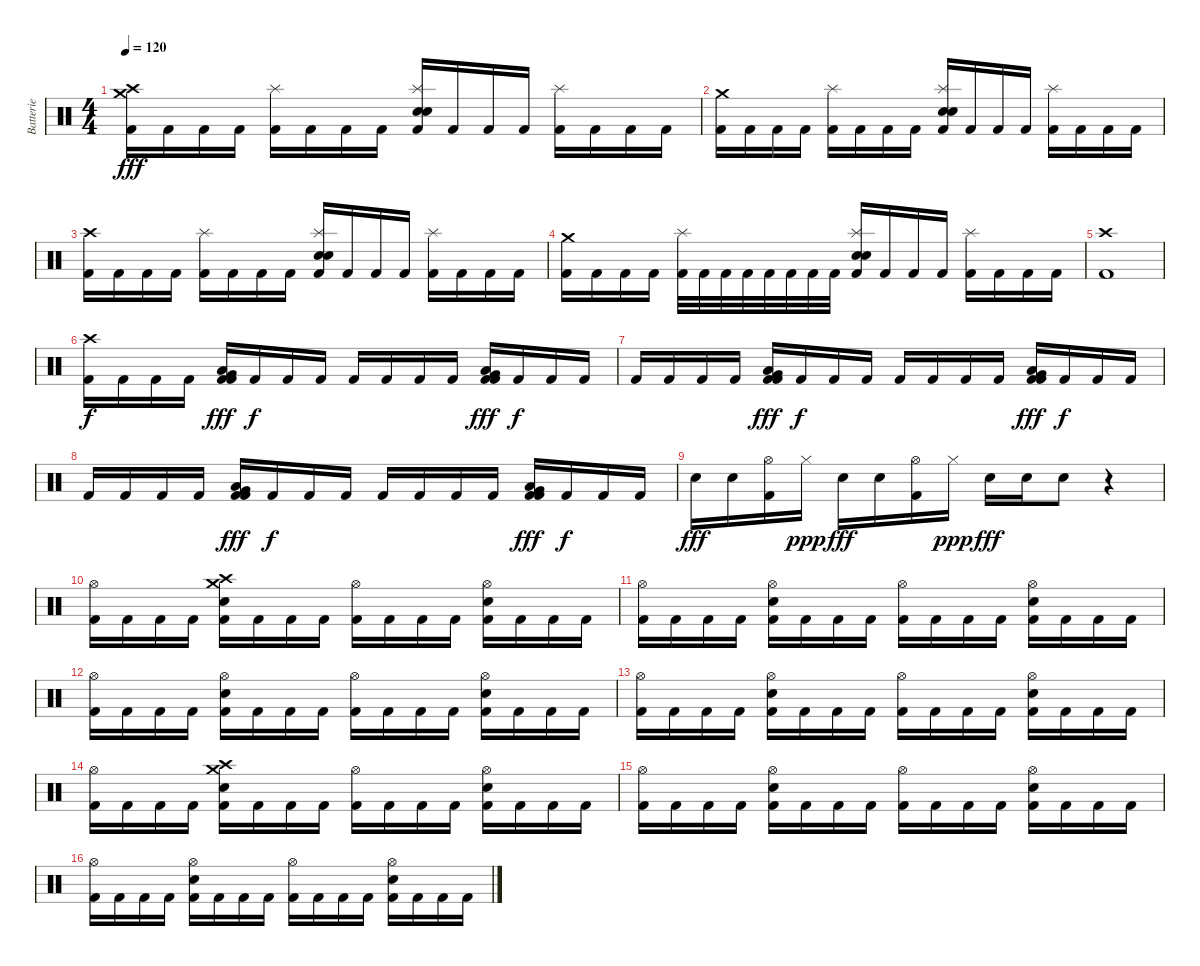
\track ("Batterie" "Batterie") {instrument percussion}
\staff {score}
\articulation defaults
\ts (4 4)
\tempo 120
\clef neutral
\ks c
("Crash high (hit)" "Crash medium (hit)" "Kick (hit) 2").16{dy fff} "Kick (hit) 2".16 "Kick (hit) 2".16 "Kick (hit) 2".16 ("Splash (hit)" "Kick (hit) 2").16 "Kick (hit) 2".16 "Kick (hit) 2".16 "Kick (hit) 2".16 ("Splash (hit)" "Electric Snare (hit)" "Kick (hit) 2" "Electric Snare (hit)").16 "Kick (hit) 2".16 "Kick (hit) 2".16 "Kick (hit) 2".16 ("Splash (hit)" "Kick (hit) 2").16 "Kick (hit) 2".16 "Kick (hit) 2".16 "Kick (hit) 2".16 |
("Crash medium (hit)" "Kick (hit) 2").16 "Kick (hit) 2".16 "Kick (hit) 2".16 "Kick (hit) 2".16 ("Splash (hit)" "Kick (hit) 2").16 "Kick (hit) 2".16 "Kick (hit) 2".16 "Kick (hit) 2".16 ("Splash (hit)" "Electric Snare (hit)" "Kick (hit) 2" "Electric Snare (hit)").16 "Kick (hit) 2".16 "Kick (hit) 2".16 "Kick (hit) 2".16 ("Splash (hit)" "Kick (hit) 2").16 "Kick (hit) 2".16 "Kick (hit) 2".16 "Kick (hit) 2".16 |
("Crash high (hit)" "Kick (hit) 2").16 "Kick (hit) 2".16 "Kick (hit) 2".16 "Kick (hit) 2".16 ("Splash (hit)" "Kick (hit) 2").16 "Kick (hit) 2".16 "Kick (hit) 2".16 "Kick (hit) 2".16 ("Splash (hit)" "Electric Snare (hit)" "Kick (hit) 2" "Electric Snare (hit)").16 "Kick (hit) 2".16 "Kick (hit) 2".16 "Kick (hit) 2".16 ("Splash (hit)" "Kick (hit) 2").16 "Kick (hit) 2".16 "Kick (hit) 2".16 "Kick (hit) 2".16 |
("Crash medium (hit)" "Kick (hit) 2").16 "Kick (hit) 2".16 "Kick (hit) 2".16 "Kick (hit) 2".16 ("Splash (hit)" "Kick (hit) 2").32 "Kick (hit) 2".32 "Kick (hit) 2".32 "Kick (hit) 2".32 "Kick (hit) 2".32 "Kick (hit) 2".32 "Kick (hit) 2".32 "Kick (hit) 2".32 ("Splash (hit)" "Electric Snare (hit)" "Kick (hit) 2" "Electric Snare (hit)").16 "Kick (hit) 2".16 "Kick (hit) 2".16 "Kick (hit) 2".16 ("Splash (hit)" "Kick (hit) 2").16 "Kick (hit) 2".16 "Kick (hit) 2".16 "Kick (hit) 2".16 |
("Crash high (hit)" "Kick (hit) 2").1 |
("Crash high (hit)" "Kick (hit) 2").16{dy f} "Kick (hit) 2".16 "Kick (hit) 2".16 "Kick (hit) 2".16 ("Very Low Tom (hit)" "Low Floor Tom (hit)" "Kick (hit) 2" "Kick (hit) 2").16{dy fff} "Kick (hit) 2".16{dy f} "Kick (hit) 2".16 "Kick (hit) 2".16 "Kick (hit) 2".16 "Kick (hit) 2".16 "Kick (hit) 2".16 "Kick (hit) 2".16 ("Very Low Tom (hit)" "Low Floor Tom (hit)" "Kick (hit) 2" "Kick (hit) 2").16{dy fff} "Kick (hit) 2".16{dy f} "Kick (hit) 2".16 "Kick (hit) 2".16 |
"Kick (hit) 2".16 "Kick (hit) 2".16 "Kick (hit) 2".16 "Kick (hit) 2".16 ("Very Low Tom (hit)" "Low Floor Tom (hit)" "Kick (hit) 2" "Kick (hit) 2").16{dy fff} "Kick (hit) 2".16{dy f} "Kick (hit) 2".16 "Kick (hit) 2".16 "Kick (hit) 2".16 "Kick (hit) 2".16 "Kick (hit) 2".16 "Kick (hit) 2".16 ("Very Low Tom (hit)" "Low Floor Tom (hit)" "Kick (hit) 2" "Kick (hit) 2").16{dy fff} "Kick (hit) 2".16{dy f} "Kick (hit) 2".16 "Kick (hit) 2".16 |
"Kick (hit) 2".16 "Kick (hit) 2".16 "Kick (hit) 2".16 "Kick (hit) 2".16 ("Very Low Tom (hit)" "Low Floor Tom (hit)" "Kick (hit) 2" "Kick (hit) 2").16{dy fff} "Kick (hit) 2".16{dy f} "Kick (hit) 2".16 "Kick (hit) 2".16 "Kick (hit) 2".16 "Kick (hit) 2".16 "Kick (hit) 2".16 "Kick (hit) 2".16 ("Very Low Tom (hit)" "Low Floor Tom (hit)" "Kick (hit) 2" "Kick (hit) 2").16{dy fff} "Kick (hit) 2".16{dy f} "Kick (hit) 2".16 "Kick (hit) 2".16 |
"Electric Snare (hit)".16{dy fff} "Electric Snare (hit)".16 ("Hi-Hat (open)" "Kick (hit) 2").16 "Hi-Hat (closed)".16{dy ppp} "Electric Snare (hit)".16{dy fff} "Electric Snare (hit)".16 ("Hi-Hat (open)" "Kick (hit) 2").16 "Hi-Hat (closed)".16{dy ppp} "Electric Snare (hit)".16{dy fff} "Electric Snare (hit)".16 "Electric Snare (hit)".8 r.4 |
("Hi-Hat (open)" "Kick (hit) 2").16 "Kick (hit) 2".16 "Kick (hit) 2".16 "Kick (hit) 2".16 ("Crash medium (hit)" "Crash high (hit)" "Electric Snare (hit)" "Kick (hit) 2").16 "Kick (hit) 2".16 "Kick (hit) 2".16 "Kick (hit) 2".16 ("Hi-Hat (open)" "Kick (hit) 2").16 "Kick (hit) 2".16 "Kick (hit) 2".16 "Kick (hit) 2".16 ("Hi-Hat (open)" "Electric Snare (hit)" "Kick (hit) 2").16 "Kick (hit) 2".16 "Kick (hit) 2".16 "Kick (hit) 2".16 |
("Hi-Hat (open)" "Kick (hit) 2").16 "Kick (hit) 2".16 "Kick (hit) 2".16 "Kick (hit) 2".16 ("Hi-Hat (open)" "Electric Snare (hit)" "Kick (hit) 2").16 "Kick (hit) 2".16 "Kick (hit) 2".16 "Kick (hit) 2".16 ("Hi-Hat (open)" "Kick (hit) 2").16 "Kick (hit) 2".16 "Kick (hit) 2".16 "Kick (hit) 2".16 ("Hi-Hat (open)" "Electric Snare (hit)" "Kick (hit) 2").16 "Kick (hit) 2".16 "Kick (hit) 2".16 "Kick (hit) 2".16 |
("Hi-Hat (open)" "Kick (hit) 2").16 "Kick (hit) 2".16 "Kick (hit) 2".16 "Kick (hit) 2".16 ("Hi-Hat (open)" "Electric Snare (hit)" "Kick (hit) 2").16 "Kick (hit) 2".16 "Kick (hit) 2".16 "Kick (hit) 2".16 ("Hi-Hat (open)" "Kick (hit) 2").16 "Kick (hit) 2".16 "Kick (hit) 2".16 "Kick (hit) 2".16 ("Hi-Hat (open)" "Electric Snare (hit)" "Kick (hit) 2").16 "Kick (hit) 2".16 "Kick (hit) 2".16 "Kick (hit) 2".16 |
("Hi-Hat (open)" "Kick (hit) 2").16 "Kick (hit) 2".16 "Kick (hit) 2".16 "Kick (hit) 2".16 ("Hi-Hat (open)" "Electric Snare (hit)" "Kick (hit) 2").16 "Kick (hit) 2".16 "Kick (hit) 2".16 "Kick (hit) 2".16 ("Hi-Hat (open)" "Kick (hit) 2").16 "Kick (hit) 2".16 "Kick (hit) 2".16 "Kick (hit) 2".16 ("Hi-Hat (open)" "Electric Snare (hit)" "Kick (hit) 2").16 "Kick (hit) 2".16 "Kick (hit) 2".16 "Kick (hit) 2".16 |
("Hi-Hat (open)" "Kick (hit) 2").16 "Kick (hit) 2".16 "Kick (hit) 2".16 "Kick (hit) 2".16 ("Crash medium (hit)" "Crash high (hit)" "Electric Snare (hit)" "Kick (hit) 2").16 "Kick (hit) 2".16 "Kick (hit) 2".16 "Kick (hit) 2".16 ("Hi-Hat (open)" "Kick (hit) 2").16 "Kick (hit) 2".16 "Kick (hit) 2".16 "Kick (hit) 2".16 ("Hi-Hat (open)" "Electric Snare (hit)" "Kick (hit) 2").16 "Kick (hit) 2".16 "Kick (hit) 2".16 "Kick (hit) 2".16 |
("Hi-Hat (open)" "Kick (hit) 2").16 "Kick (hit) 2".16 "Kick (hit) 2".16 "Kick (hit) 2".16 ("Hi-Hat (open)" "Electric Snare (hit)" "Kick (hit) 2").16 "Kick (hit) 2".16 "Kick (hit) 2".16 "Kick (hit) 2".16 ("Hi-Hat (open)" "Kick (hit) 2").16 "Kick (hit) 2".16 "Kick (hit) 2".16 "Kick (hit) 2".16 ("Hi-Hat (open)" "Electric Snare (hit)" "Kick (hit) 2").16 "Kick (hit) 2".16 "Kick (hit) 2".16 "Kick (hit) 2".16 |
("Hi-Hat (open)" "Kick (hit) 2").16 "Kick (hit) 2".16 "Kick (hit) 2".16 "Kick (hit) 2".16 ("Hi-Hat (open)" "Electric Snare (hit)" "Kick (hit) 2").16 "Kick (hit) 2".16 "Kick (hit) 2".16 "Kick (hit) 2".16 ("Hi-Hat (open)" "Kick (hit) 2").16 "Kick (hit) 2".16 "Kick (hit) 2".16 "Kick (hit) 2".16 ("Hi-Hat (open)" "Electric Snare (hit)" "Kick (hit) 2").16 "Kick (hit) 2".16 "Kick (hit) 2".16 "Kick (hit) 2".16
